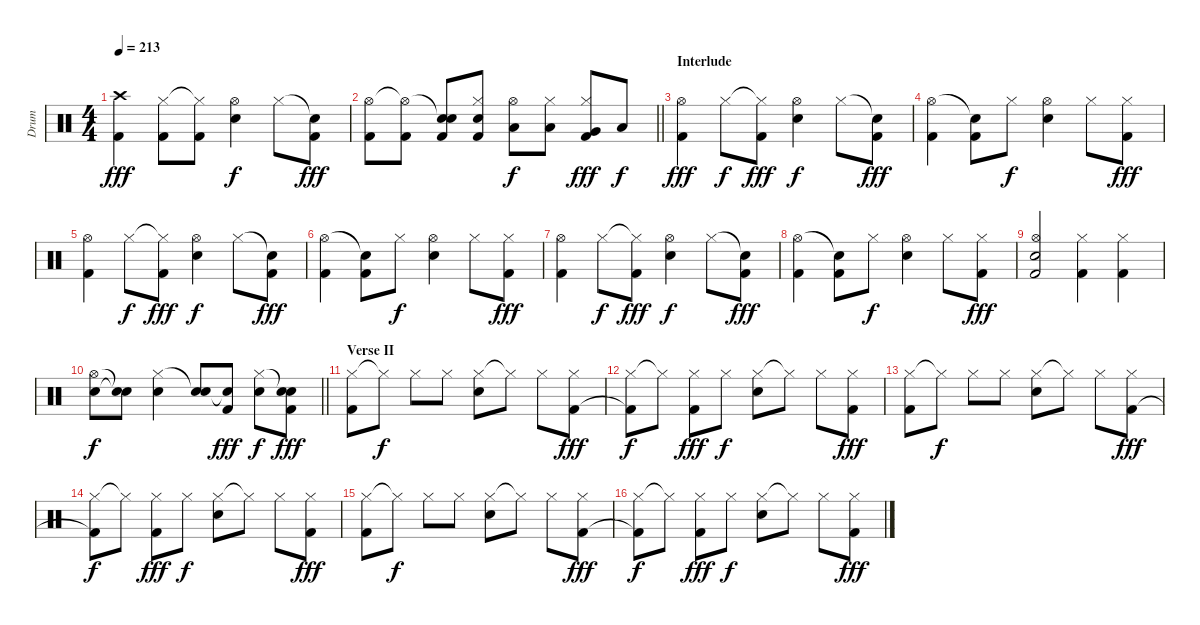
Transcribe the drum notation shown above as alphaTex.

\track ("Drum" "Drum") {instrument percussion}
\staff {score}
\articulation defaults
\ts (4 4)
\tempo 213
\clef neutral
\ks c
("Crash high (hit)" "Kick (hit) 2").4{dy fff} ("Hi-Hat (closed)" "Kick (hit) 2").8 ("Hi-Hat (closed)"{t} "Kick (hit) 2").8 ("Hi-Hat (open)" "Snare (hit) 2").4{dy f} "Hi-Hat (closed)".8 ("Snare (hit)"{t} "Kick (hit) 2").8{dy fff} |
\barLineRight lightlight
("Hi-Hat (open)" "Kick (hit) 2").8 ("Hi-Hat (open)"{t} "Kick (hit) 2").8 ("Snare (hit)"{t} "Snare (hit) 2" "Kick (hit) 2").8 ("Hi-Hat (closed)" "Snare (hit) 2" "Kick (hit) 2").8 ("Hi-Hat (open)" "Low Tom (hit)").8{dy f} ("Hi-Hat (closed)" "Low Tom (hit)").8 ("Hi-Hat (closed)" "Very Low Tom (hit)" "Kick (hit) 2").8{dy fff} "Low Floor Tom (hit)".8{dy f} |
\section ("" "Interlude")
("Hi-Hat (open)" "Kick (hit) 2").4{dy fff} "Hi-Hat (closed)".8{dy f} ("Hi-Hat (closed)"{t} "Kick (hit) 2").8{dy fff} ("Hi-Hat (open)" "Snare (hit) 2").4{dy f} "Hi-Hat (closed)".8 ("Snare (hit)"{t} "Kick (hit) 2").8{dy fff} |
("Hi-Hat (open)" "Kick (hit) 2").4 ("Snare (hit)"{t} "Kick (hit) 2").8 "Hi-Hat (closed)".8{dy f} ("Hi-Hat (open)" "Snare (hit) 2").4 "Hi-Hat (closed)".8 ("Hi-Hat (closed)" "Kick (hit) 2").8{dy fff} |
("Hi-Hat (open)" "Kick (hit) 2").4 "Hi-Hat (closed)".8{dy f} ("Hi-Hat (closed)"{t} "Kick (hit) 2").8{dy fff} ("Hi-Hat (open)" "Snare (hit) 2").4{dy f} "Hi-Hat (closed)".8 ("Snare (hit)"{t} "Kick (hit) 2").8{dy fff} |
("Hi-Hat (open)" "Kick (hit) 2").4 ("Snare (hit)"{t} "Kick (hit) 2").8 "Hi-Hat (closed)".8{dy f} ("Hi-Hat (open)" "Snare (hit) 2").4 "Hi-Hat (closed)".8 ("Hi-Hat (closed)" "Kick (hit) 2").8{dy fff} |
("Hi-Hat (open)" "Kick (hit) 2").4 "Hi-Hat (closed)".8{dy f} ("Hi-Hat (closed)"{t} "Kick (hit) 2").8{dy fff} ("Hi-Hat (open)" "Snare (hit) 2").4{dy f} "Hi-Hat (closed)".8 ("Snare (hit)"{t} "Kick (hit) 2").8{dy fff} |
("Hi-Hat (open)" "Kick (hit) 2").4 ("Snare (hit)"{t} "Kick (hit) 2").8 "Hi-Hat (closed)".8{dy f} ("Hi-Hat (open)" "Snare (hit) 2").4 "Hi-Hat (closed)".8 ("Hi-Hat (closed)" "Kick (hit) 2").8{dy fff} |
("Hi-Hat (open)" "Snare (hit) 2" "Kick (hit) 2").2 ("Hi-Hat (closed)" "Kick (hit) 2").4 ("Hi-Hat (closed)" "Kick (hit) 2").4 |
\barLineRight lightlight
("Hi-Hat (open)" "Snare (hit) 2").8{dy f} ("Snare (hit)"{t} "Snare (hit)"{t}).8 ("Hi-Hat (closed)" "Snare (hit) 2").4 ("Snare (hit)"{t} "Snare (hit) 2").8 ("Snare (hit)"{t} "Kick (hit) 2").8{dy fff} ("Hi-Hat (closed)" "Snare (hit) 2").8{dy f} ("Snare (hit)"{t} "Snare (hit) 2" "Kick (hit) 2").8{dy fff} |
\section ("" "Verse II")
("Hi-Hat (closed)" "Kick (hit) 2").8 "Hi-Hat (closed)"{t}.8{dy f} "Hi-Hat (closed)".8 "Hi-Hat (closed)".8 ("Hi-Hat (closed)" "Snare (hit) 2").8 "Hi-Hat (closed)"{t}.8 "Hi-Hat (closed)".8 ("Hi-Hat (closed)" "Kick (hit) 2").8{dy fff} |
("Hi-Hat (closed)" "Kick (hit) 2"{t}).8{dy f} "Hi-Hat (closed)"{t}.8 ("Hi-Hat (closed)" "Kick (hit) 2").8{dy fff} "Hi-Hat (closed)".8{dy f} ("Hi-Hat (closed)" "Snare (hit) 2").8 "Hi-Hat (closed)"{t}.8 "Hi-Hat (closed)".8 ("Hi-Hat (closed)" "Kick (hit) 2").8{dy fff} |
("Hi-Hat (closed)" "Kick (hit) 2").8 "Hi-Hat (closed)"{t}.8{dy f} "Hi-Hat (closed)".8 "Hi-Hat (closed)".8 ("Hi-Hat (closed)" "Snare (hit) 2").8 "Hi-Hat (closed)"{t}.8 "Hi-Hat (closed)".8 ("Hi-Hat (closed)" "Kick (hit) 2").8{dy fff} |
("Hi-Hat (closed)" "Kick (hit) 2"{t}).8{dy f} "Hi-Hat (closed)"{t}.8 ("Hi-Hat (closed)" "Kick (hit) 2").8{dy fff} "Hi-Hat (closed)".8{dy f} ("Hi-Hat (closed)" "Snare (hit) 2").8 "Hi-Hat (closed)"{t}.8 "Hi-Hat (closed)".8 ("Hi-Hat (closed)" "Kick (hit) 2").8{dy fff} |
("Hi-Hat (closed)" "Kick (hit) 2").8 "Hi-Hat (closed)"{t}.8{dy f} "Hi-Hat (closed)".8 "Hi-Hat (closed)".8 ("Hi-Hat (closed)" "Snare (hit) 2").8 "Hi-Hat (closed)"{t}.8 "Hi-Hat (closed)".8 ("Hi-Hat (closed)" "Kick (hit) 2").8{dy fff} |
("Hi-Hat (closed)" "Kick (hit) 2"{t}).8{dy f} "Hi-Hat (closed)"{t}.8 ("Hi-Hat (closed)" "Kick (hit) 2").8{dy fff} "Hi-Hat (closed)".8{dy f} ("Hi-Hat (closed)" "Snare (hit) 2").8 "Hi-Hat (closed)"{t}.8 "Hi-Hat (closed)".8 ("Hi-Hat (closed)" "Kick (hit) 2").8{dy fff}
